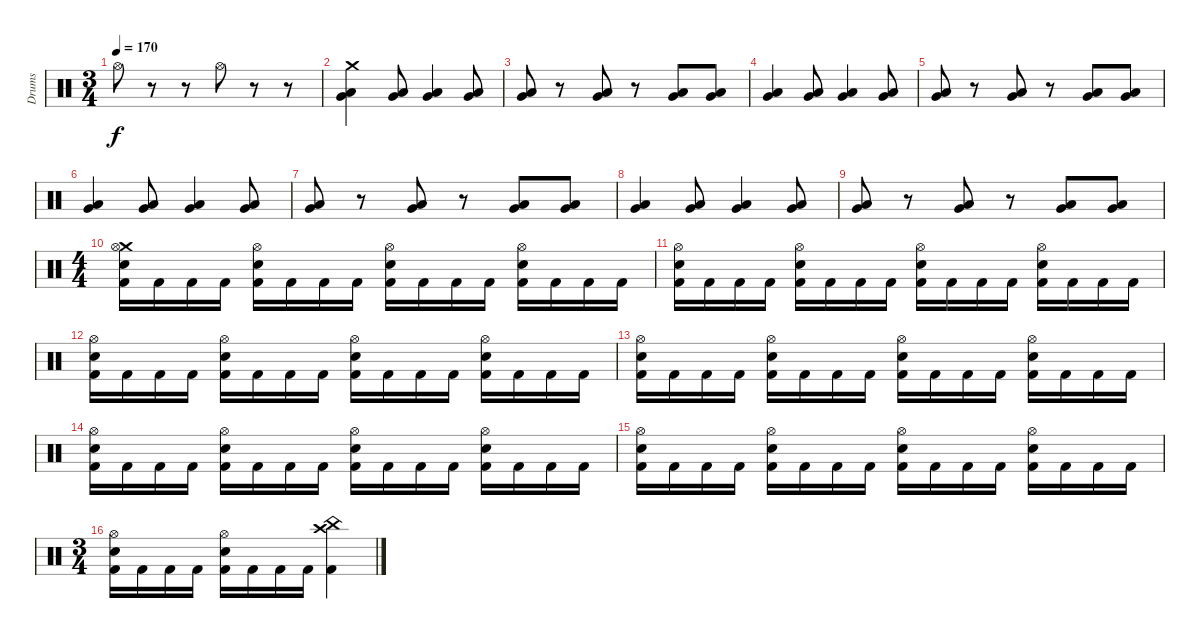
\track ("Drums" "Drums") {instrument percussion}
\staff {score}
\articulation defaults
\ts (3 4)
\tempo 170
\clef neutral
\ks c "Hi-Hat (open)".8{dy f}
r.8 r.8 "Hi-Hat (open)".8 r.8 r.8 |
("Crash medium (hit)" "Low Floor Tom (hit)" "Very Low Tom (hit)").4 ("Very Low Tom (hit)" "Low Tom (hit)").8 ("Low Floor Tom (hit)" "Very Low Tom (hit)").4 ("Very Low Tom (hit)" "Low Tom (hit)").8 |
("Low Tom (hit)" "Very Low Tom (hit)").8 r.8 ("Low Tom (hit)" "Very Low Tom (hit)").8 r.8 ("Low Tom (hit)" "Very Low Tom (hit)").8 ("Low Tom (hit)" "Very Low Tom (hit)").8 |
("Low Floor Tom (hit)" "Very Low Tom (hit)").4 ("Very Low Tom (hit)" "Low Tom (hit)").8 ("Low Floor Tom (hit)" "Very Low Tom (hit)").4 ("Very Low Tom (hit)" "Low Tom (hit)").8 |
("Low Tom (hit)" "Very Low Tom (hit)").8 r.8 ("Low Tom (hit)" "Very Low Tom (hit)").8 r.8 ("Low Tom (hit)" "Very Low Tom (hit)").8 ("Low Tom (hit)" "Very Low Tom (hit)").8 |
("Low Floor Tom (hit)" "Very Low Tom (hit)").4 ("Very Low Tom (hit)" "Low Tom (hit)").8 ("Low Floor Tom (hit)" "Very Low Tom (hit)").4 ("Very Low Tom (hit)" "Low Tom (hit)").8 |
("Low Tom (hit)" "Very Low Tom (hit)").8 r.8 ("Low Tom (hit)" "Very Low Tom (hit)").8 r.8 ("Low Tom (hit)" "Very Low Tom (hit)").8 ("Low Tom (hit)" "Very Low Tom (hit)").8 |
("Low Floor Tom (hit)" "Very Low Tom (hit)").4 ("Very Low Tom (hit)" "Low Tom (hit)").8 ("Low Floor Tom (hit)" "Very Low Tom (hit)").4 ("Very Low Tom (hit)" "Low Tom (hit)").8 |
("Low Tom (hit)" "Very Low Tom (hit)").8 r.8 ("Low Tom (hit)" "Very Low Tom (hit)").8 r.8 ("Low Tom (hit)" "Very Low Tom (hit)").8 ("Low Tom (hit)" "Very Low Tom (hit)").8 |
\ts (4 4)
("Crash medium (hit)" "Hi-Hat (open)" "Electric Snare (hit)" "Kick (hit) 2").16 "Kick (hit) 2".16 "Kick (hit) 2".16 "Kick (hit) 2".16 ("Hi-Hat (open)" "Electric Snare (hit)" "Kick (hit) 2").16 "Kick (hit) 2".16 "Kick (hit) 2".16 "Kick (hit) 2".16 ("Hi-Hat (open)" "Electric Snare (hit)" "Kick (hit) 2").16 "Kick (hit) 2".16 "Kick (hit) 2".16 "Kick (hit) 2".16 ("Hi-Hat (open)" "Electric Snare (hit)" "Kick (hit) 2").16 "Kick (hit) 2".16 "Kick (hit) 2".16 "Kick (hit) 2".16 |
("Hi-Hat (open)" "Electric Snare (hit)" "Kick (hit) 2").16 "Kick (hit) 2".16 "Kick (hit) 2".16 "Kick (hit) 2".16 ("Hi-Hat (open)" "Electric Snare (hit)" "Kick (hit) 2").16 "Kick (hit) 2".16 "Kick (hit) 2".16 "Kick (hit) 2".16 ("Hi-Hat (open)" "Electric Snare (hit)" "Kick (hit) 2").16 "Kick (hit) 2".16 "Kick (hit) 2".16 "Kick (hit) 2".16 ("Hi-Hat (open)" "Electric Snare (hit)" "Kick (hit) 2").16 "Kick (hit) 2".16 "Kick (hit) 2".16 "Kick (hit) 2".16 |
("Hi-Hat (open)" "Electric Snare (hit)" "Kick (hit) 2").16 "Kick (hit) 2".16 "Kick (hit) 2".16 "Kick (hit) 2".16 ("Hi-Hat (open)" "Electric Snare (hit)" "Kick (hit) 2").16 "Kick (hit) 2".16 "Kick (hit) 2".16 "Kick (hit) 2".16 ("Hi-Hat (open)" "Electric Snare (hit)" "Kick (hit) 2").16 "Kick (hit) 2".16 "Kick (hit) 2".16 "Kick (hit) 2".16 ("Hi-Hat (open)" "Electric Snare (hit)" "Kick (hit) 2").16 "Kick (hit) 2".16 "Kick (hit) 2".16 "Kick (hit) 2".16 |
("Hi-Hat (open)" "Electric Snare (hit)" "Kick (hit) 2").16 "Kick (hit) 2".16 "Kick (hit) 2".16 "Kick (hit) 2".16 ("Hi-Hat (open)" "Electric Snare (hit)" "Kick (hit) 2").16 "Kick (hit) 2".16 "Kick (hit) 2".16 "Kick (hit) 2".16 ("Hi-Hat (open)" "Electric Snare (hit)" "Kick (hit) 2").16 "Kick (hit) 2".16 "Kick (hit) 2".16 "Kick (hit) 2".16 ("Hi-Hat (open)" "Electric Snare (hit)" "Kick (hit) 2").16 "Kick (hit) 2".16 "Kick (hit) 2".16 "Kick (hit) 2".16 |
("Hi-Hat (open)" "Electric Snare (hit)" "Kick (hit) 2").16 "Kick (hit) 2".16 "Kick (hit) 2".16 "Kick (hit) 2".16 ("Hi-Hat (open)" "Electric Snare (hit)" "Kick (hit) 2").16 "Kick (hit) 2".16 "Kick (hit) 2".16 "Kick (hit) 2".16 ("Hi-Hat (open)" "Electric Snare (hit)" "Kick (hit) 2").16 "Kick (hit) 2".16 "Kick (hit) 2".16 "Kick (hit) 2".16 ("Hi-Hat (open)" "Electric Snare (hit)" "Kick (hit) 2").16 "Kick (hit) 2".16 "Kick (hit) 2".16 "Kick (hit) 2".16 |
("Hi-Hat (open)" "Electric Snare (hit)" "Kick (hit) 2").16 "Kick (hit) 2".16 "Kick (hit) 2".16 "Kick (hit) 2".16 ("Hi-Hat (open)" "Electric Snare (hit)" "Kick (hit) 2").16 "Kick (hit) 2".16 "Kick (hit) 2".16 "Kick (hit) 2".16 ("Hi-Hat (open)" "Electric Snare (hit)" "Kick (hit) 2").16 "Kick (hit) 2".16 "Kick (hit) 2".16 "Kick (hit) 2".16 ("Hi-Hat (open)" "Electric Snare (hit)" "Kick (hit) 2").16 "Kick (hit) 2".16 "Kick (hit) 2".16 "Kick (hit) 2".16 |
\ts (3 4)
("Hi-Hat (open)" "Electric Snare (hit)" "Kick (hit) 2").16 "Kick (hit) 2".16 "Kick (hit) 2".16 "Kick (hit) 2".16 ("Hi-Hat (open)" "Electric Snare (hit)" "Kick (hit) 2").16 "Kick (hit) 2".16 "Kick (hit) 2".16 "Kick (hit) 2".16 ("China (hit)" "Crash high (hit)" "Kick (hit) 2").4
